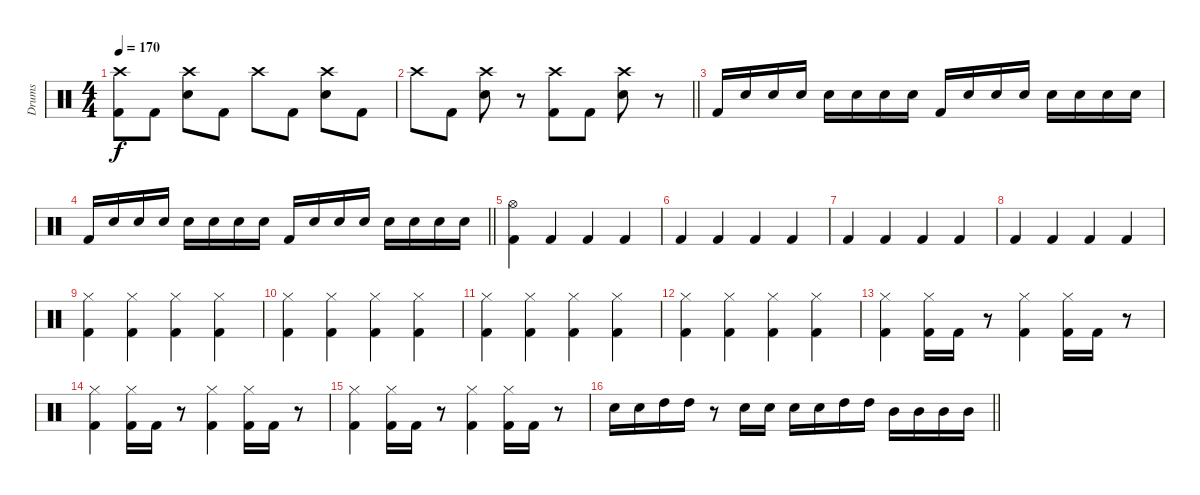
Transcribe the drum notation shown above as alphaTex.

\track ("Drums" "Drums") {instrument percussion}
\staff {score}
\articulation defaults
\ts (4 4)
\tempo 170
\clef neutral
\ks c
("Crash high (hit)" "Kick (hit) 2").8{dy f} "Kick (hit) 2".8 ("Crash high (hit)" "Electric Snare (hit)").8 "Kick (hit) 2".8 "Crash high (hit)".8 "Kick (hit) 2".8 ("Crash high (hit)" "Electric Snare (hit)").8 "Kick (hit) 2".8 |
\barLineRight lightlight "Crash high (hit)".8 "Kick (hit) 2".8
("Crash high (hit)" "Electric Snare (hit)").8 r.8 ("Crash high (hit)" "Kick (hit) 2").8 "Kick (hit) 2".8 ("Crash high (hit)" "Electric Snare (hit)").8 r.8 |
\section ("" "")
"Kick (hit) 2".16 "Electric Snare (hit)".16 "Electric Snare (hit)".16 "Electric Snare (hit)".16 "Electric Snare (hit)".16 "Electric Snare (hit)".16 "Electric Snare (hit)".16 "Electric Snare (hit)".16 "Kick (hit) 2".16 "Electric Snare (hit)".16 "Electric Snare (hit)".16 "Electric Snare (hit)".16 "Electric Snare (hit)".16 "Electric Snare (hit)".16 "Electric Snare (hit)".16 "Electric Snare (hit)".16 |
\barLineRight lightlight "Kick (hit) 2".16 "Electric Snare (hit)".16 "Electric Snare (hit)".16 "Electric Snare (hit)".16 "Electric Snare (hit)".16 "Electric Snare (hit)".16 "Electric Snare (hit)".16 "Electric Snare (hit)".16 "Kick (hit) 2".16 "Electric Snare (hit)".16 "Electric Snare (hit)".16 "Electric Snare (hit)".16 "Electric Snare (hit)".16 "Electric Snare (hit)".16 "Electric Snare (hit)".16 "Electric Snare (hit)".16
|
\section ("" "")
("Hi-Hat (open)" "Kick (hit) 2").4 "Kick (hit) 2".4 "Kick (hit) 2".4 "Kick (hit) 2".4 |
"Kick (hit) 2".4 "Kick (hit) 2".4 "Kick (hit) 2".4 "Kick (hit) 2".4 |
"Kick (hit) 2".4 "Kick (hit) 2".4 "Kick (hit) 2".4 "Kick (hit) 2".4 |
"Kick (hit) 2".4 "Kick (hit) 2".4 "Kick (hit) 2".4 "Kick (hit) 2".4 |
("Hi-Hat (closed)" "Kick (hit) 2").4 ("Hi-Hat (closed)" "Kick (hit) 2").4 ("Hi-Hat (closed)" "Kick (hit) 2").4 ("Hi-Hat (closed)" "Kick (hit) 2").4 |
("Hi-Hat (closed)" "Kick (hit) 2").4 ("Hi-Hat (closed)" "Kick (hit) 2").4 ("Hi-Hat (closed)" "Kick (hit) 2").4 ("Hi-Hat (closed)" "Kick (hit) 2").4 |
("Hi-Hat (closed)" "Kick (hit) 2").4 ("Hi-Hat (closed)" "Kick (hit) 2").4 ("Hi-Hat (closed)" "Kick (hit) 2").4 ("Hi-Hat (closed)" "Kick (hit) 2").4 |
("Hi-Hat (closed)" "Kick (hit) 2").4 ("Hi-Hat (closed)" "Kick (hit) 2").4 ("Hi-Hat (closed)" "Kick (hit) 2").4 ("Hi-Hat (closed)" "Kick (hit) 2").4 |
("Hi-Hat (closed)" "Kick (hit) 2").4 ("Hi-Hat (closed)" "Kick (hit) 2").16 "Kick (hit) 2".16 r.8 ("Hi-Hat (closed)" "Kick (hit) 2").4 ("Hi-Hat (closed)" "Kick (hit) 2").16 "Kick (hit) 2".16 r.8 |
("Hi-Hat (closed)" "Kick (hit) 2").4 ("Hi-Hat (closed)" "Kick (hit) 2").16 "Kick (hit) 2".16 r.8 ("Hi-Hat (closed)" "Kick (hit) 2").4 ("Hi-Hat (closed)" "Kick (hit) 2").16 "Kick (hit) 2".16 r.8 |
("Hi-Hat (closed)" "Kick (hit) 2").4 ("Hi-Hat (closed)" "Kick (hit) 2").16 "Kick (hit) 2".16 r.8 ("Hi-Hat (closed)" "Kick (hit) 2").4 ("Hi-Hat (closed)" "Kick (hit) 2").16 "Kick (hit) 2".16 r.8 |
\barLineRight lightlight "Electric Snare (hit)".16 "Electric Snare (hit)".16 "High Tom (hit)".16 "High Tom (hit)".16
r.8 "Electric Snare (hit)".16 "Electric Snare (hit)".16 "Electric Snare (hit)".16 "Electric Snare (hit)".16 "High Tom (hit)".16 "High Tom (hit)".16 "Mid Tom (hit)".16 "Mid Tom (hit)".16 "Mid Tom (hit)".16 "Mid Tom (hit)".16
